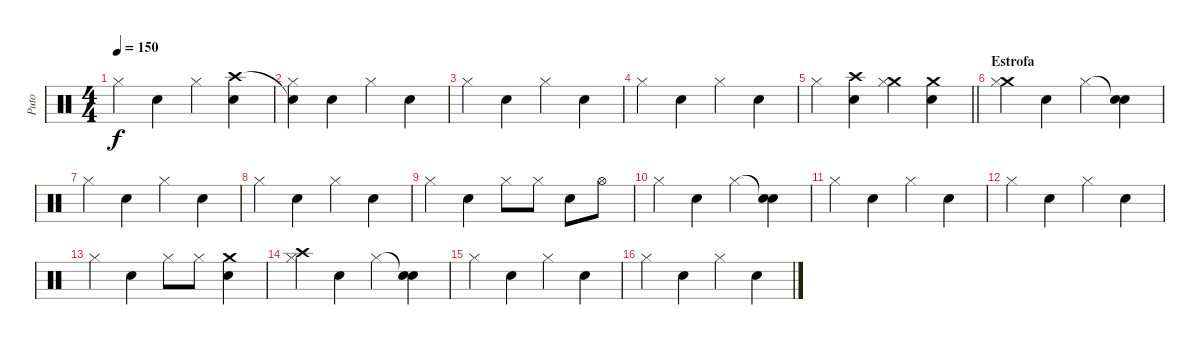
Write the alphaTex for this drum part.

\track ("Puto" "Puto") {instrument percussion}
\staff {score}
\articulation defaults
\ts (4 4)
\tempo 150
\clef neutral
\ks c "Hi-Hat (closed)".4{dy f} "Electric Snare (hit)".4 "Hi-Hat (closed)".4
("Crash high (hit)" "Electric Snare (hit)").4 |
("Snare (hit)"{t} "Hi-Hat (closed)").4 "Electric Snare (hit)".4 "Hi-Hat (closed)".4 "Electric Snare (hit)".4 |
"Hi-Hat (closed)".4 "Electric Snare (hit)".4 "Hi-Hat (closed)".4 "Electric Snare (hit)".4 |
"Hi-Hat (closed)".4 "Electric Snare (hit)".4 "Hi-Hat (closed)".4 "Electric Snare (hit)".4 |
\barLineRight lightlight "Hi-Hat (closed)".4
("Crash high (hit)" "Electric Snare (hit)").4 ("Crash medium (hit)" "Hi-Hat (closed)").4 ("Crash medium (hit)" "Electric Snare (hit)").4 |
\section ("" "Estrofa")
("Crash medium (hit)" "Hi-Hat (closed)").4 "Electric Snare (hit)".4 "Hi-Hat (closed)".4 ("Snare (hit)"{t} "Electric Snare (hit)").4 |
"Hi-Hat (closed)".4 "Electric Snare (hit)".4 "Hi-Hat (closed)".4 "Electric Snare (hit)".4 |
"Hi-Hat (closed)".4 "Electric Snare (hit)".4 "Hi-Hat (closed)".4 "Electric Snare (hit)".4 |
"Hi-Hat (closed)".4 "Electric Snare (hit)".4 "Hi-Hat (closed)".8 "Hi-Hat (closed)".8 "Electric Snare (hit)".8 "Hi-Hat (open)".8 |
"Hi-Hat (closed)".4 "Electric Snare (hit)".4 "Hi-Hat (closed)".4 ("Snare (hit)"{t} "Electric Snare (hit)").4 |
"Hi-Hat (closed)".4 "Electric Snare (hit)".4 "Hi-Hat (closed)".4 "Electric Snare (hit)".4 |
"Hi-Hat (closed)".4 "Electric Snare (hit)".4 "Hi-Hat (closed)".4 "Electric Snare (hit)".4 |
"Hi-Hat (closed)".4 "Electric Snare (hit)".4 "Hi-Hat (closed)".8 "Hi-Hat (closed)".8 ("Crash medium (hit)" "Electric Snare (hit)").4 |
("Crash high (hit)" "Hi-Hat (closed)").4 "Electric Snare (hit)".4 "Hi-Hat (closed)".4 ("Snare (hit)"{t} "Electric Snare (hit)").4 |
"Hi-Hat (closed)".4 "Electric Snare (hit)".4 "Hi-Hat (closed)".4 "Electric Snare (hit)".4 |
"Hi-Hat (closed)".4 "Electric Snare (hit)".4 "Hi-Hat (closed)".4 "Electric Snare (hit)".4
